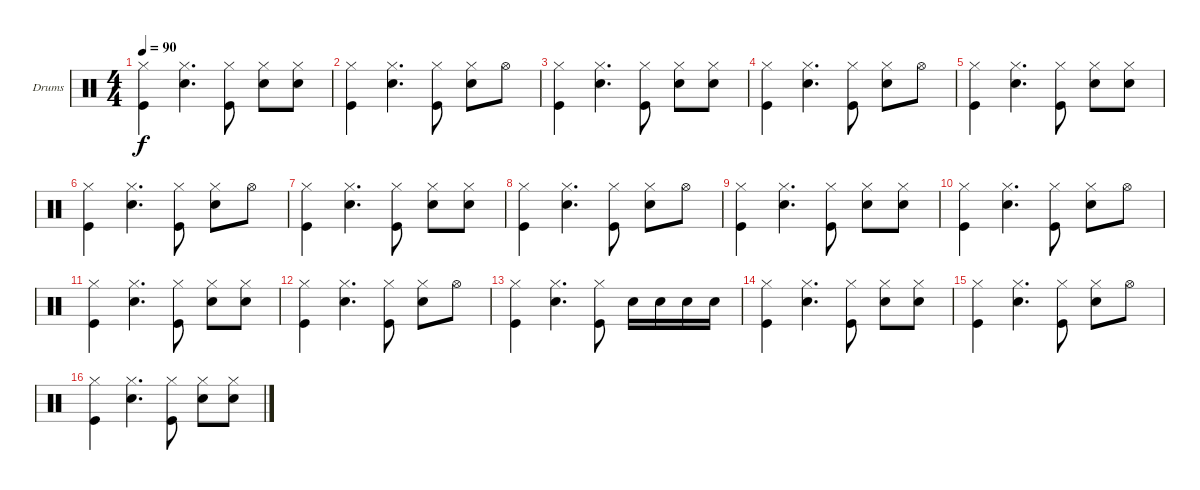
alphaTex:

\bracketExtendMode groupsimilarinstruments
\firstSystemTrackNameOrientation horizontal
\otherSystemsTrackNameOrientation horizontal
\track ("Drumkit" "Drums") {instrument percussion}
\staff {score}
\articulation defaults
\ts (4 4)
\tempo 90
\clef neutral
\ks c
("Kick (hit)" "Hi-Hat (closed)").4{dy f} ("Snare (hit) 2" "Hi-Hat (closed)").4{d} ("Kick (hit)" "Hi-Hat (closed)").8 ("Snare (hit) 2" "Hi-Hat (closed)").8 ("Snare (hit) 2" "Hi-Hat (closed)").8 |
("Kick (hit)" "Hi-Hat (closed)").4 ("Snare (hit) 2" "Hi-Hat (closed)").4{d} ("Kick (hit)" "Hi-Hat (closed)").8 ("Snare (hit) 2" "Hi-Hat (closed)").8 "Hi-Hat (open)".8 |
("Kick (hit)" "Hi-Hat (closed)").4 ("Snare (hit) 2" "Hi-Hat (closed)").4{d} ("Kick (hit)" "Hi-Hat (closed)").8 ("Snare (hit) 2" "Hi-Hat (closed)").8 ("Snare (hit) 2" "Hi-Hat (closed)").8 |
("Kick (hit)" "Hi-Hat (closed)").4 ("Snare (hit) 2" "Hi-Hat (closed)").4{d} ("Kick (hit)" "Hi-Hat (closed)").8 ("Snare (hit) 2" "Hi-Hat (closed)").8 "Hi-Hat (open)".8 |
("Kick (hit)" "Hi-Hat (closed)").4 ("Snare (hit) 2" "Hi-Hat (closed)").4{d} ("Kick (hit)" "Hi-Hat (closed)").8 ("Snare (hit) 2" "Hi-Hat (closed)").8 ("Snare (hit) 2" "Hi-Hat (closed)").8 |
("Kick (hit)" "Hi-Hat (closed)").4 ("Snare (hit) 2" "Hi-Hat (closed)").4{d} ("Kick (hit)" "Hi-Hat (closed)").8 ("Snare (hit) 2" "Hi-Hat (closed)").8 "Hi-Hat (open)".8 |
("Kick (hit)" "Hi-Hat (closed)").4 ("Snare (hit) 2" "Hi-Hat (closed)").4{d} ("Kick (hit)" "Hi-Hat (closed)").8 ("Snare (hit) 2" "Hi-Hat (closed)").8 ("Snare (hit) 2" "Hi-Hat (closed)").8 |
("Kick (hit)" "Hi-Hat (closed)").4 ("Snare (hit) 2" "Hi-Hat (closed)").4{d} ("Kick (hit)" "Hi-Hat (closed)").8 ("Snare (hit) 2" "Hi-Hat (closed)").8 "Hi-Hat (open)".8 |
("Kick (hit)" "Hi-Hat (closed)").4 ("Snare (hit) 2" "Hi-Hat (closed)").4{d} ("Kick (hit)" "Hi-Hat (closed)").8 ("Snare (hit) 2" "Hi-Hat (closed)").8 ("Snare (hit) 2" "Hi-Hat (closed)").8 |
("Kick (hit)" "Hi-Hat (closed)").4 ("Snare (hit) 2" "Hi-Hat (closed)").4{d} ("Kick (hit)" "Hi-Hat (closed)").8 ("Snare (hit) 2" "Hi-Hat (closed)").8 "Hi-Hat (open)".8 |
("Kick (hit)" "Hi-Hat (closed)").4 ("Snare (hit) 2" "Hi-Hat (closed)").4{d} ("Kick (hit)" "Hi-Hat (closed)").8 ("Snare (hit) 2" "Hi-Hat (closed)").8 ("Snare (hit) 2" "Hi-Hat (closed)").8 |
("Kick (hit)" "Hi-Hat (closed)").4 ("Snare (hit) 2" "Hi-Hat (closed)").4{d} ("Kick (hit)" "Hi-Hat (closed)").8 ("Snare (hit) 2" "Hi-Hat (closed)").8 "Hi-Hat (open)".8 |
("Kick (hit)" "Hi-Hat (closed)").4 ("Snare (hit) 2" "Hi-Hat (closed)").4{d} ("Kick (hit)" "Hi-Hat (closed)").8 "Snare (hit) 2".16 "Snare (hit) 2".16 "Snare (hit) 2".16 "Snare (hit) 2".16 |
("Kick (hit)" "Hi-Hat (closed)").4 ("Snare (hit) 2" "Hi-Hat (closed)").4{d} ("Kick (hit)" "Hi-Hat (closed)").8 ("Snare (hit) 2" "Hi-Hat (closed)").8 ("Snare (hit) 2" "Hi-Hat (closed)").8 |
("Kick (hit)" "Hi-Hat (closed)").4 ("Snare (hit) 2" "Hi-Hat (closed)").4{d} ("Kick (hit)" "Hi-Hat (closed)").8 ("Snare (hit) 2" "Hi-Hat (closed)").8 "Hi-Hat (open)".8 |
("Kick (hit)" "Hi-Hat (closed)").4 ("Snare (hit) 2" "Hi-Hat (closed)").4{d} ("Kick (hit)" "Hi-Hat (closed)").8 ("Snare (hit) 2" "Hi-Hat (closed)").8 ("Snare (hit) 2" "Hi-Hat (closed)").8
